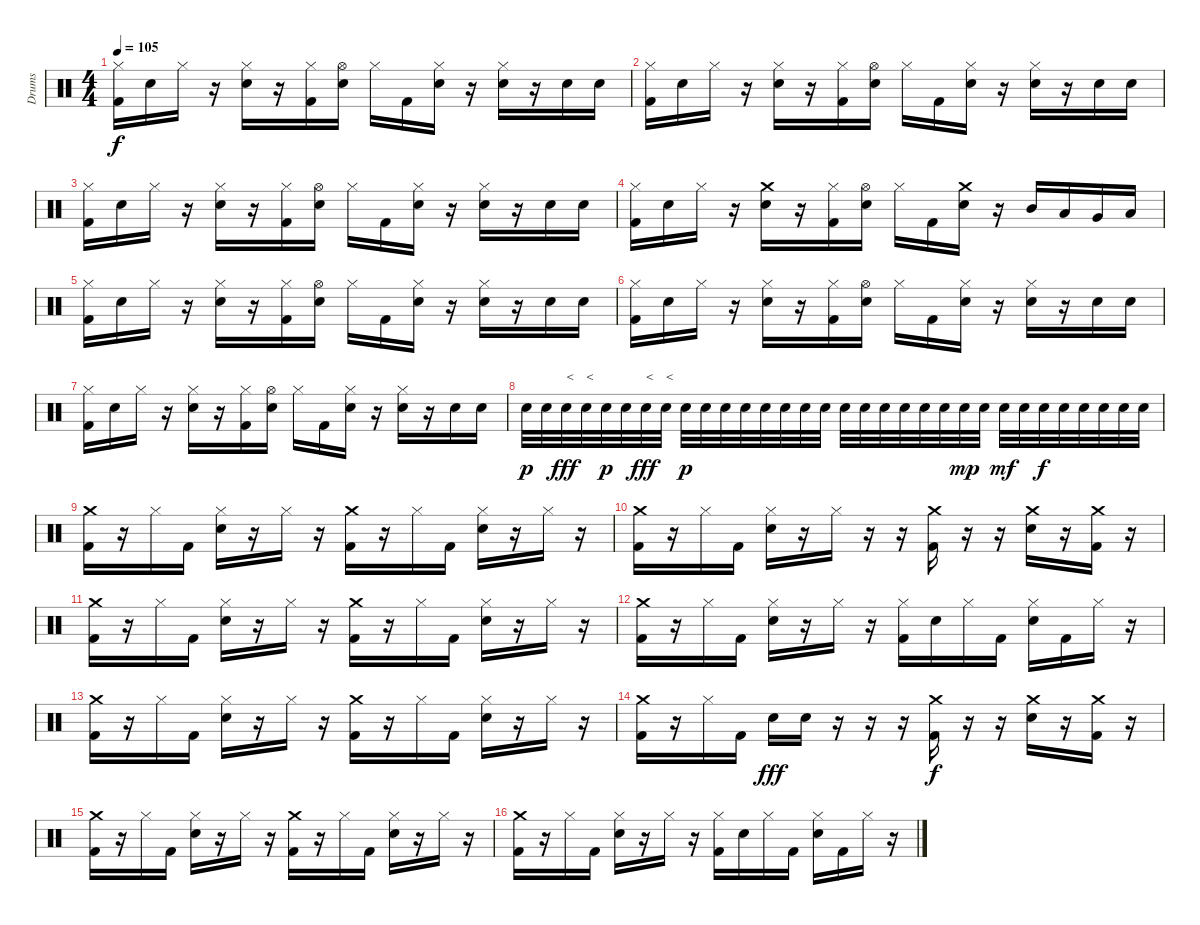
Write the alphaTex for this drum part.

\track ("Drums" "Drums") {instrument percussion}
\staff {score}
\articulation defaults
\ts (4 4)
\tempo 105
\clef neutral
\ks c
("Hi-Hat (closed)" "Kick (hit) 2").16{dy f} "Snare (hit) 2".16 "Hi-Hat (closed)".16 r.16 ("Hi-Hat (closed)" "Snare (hit) 2").16 r.16 ("Hi-Hat (closed)" "Kick (hit) 2").16 ("Hi-Hat (open)" "Snare (hit) 2").16 "Hi-Hat (closed)".16 "Kick (hit) 2".16 ("Hi-Hat (closed)" "Snare (hit) 2").16 r.16 ("Hi-Hat (closed)" "Snare (hit) 2").16 r.16 "Snare (hit) 2".16 "Snare (hit) 2".16 |
("Hi-Hat (closed)" "Kick (hit) 2").16 "Snare (hit) 2".16 "Hi-Hat (closed)".16 r.16 ("Hi-Hat (closed)" "Snare (hit) 2").16 r.16 ("Hi-Hat (closed)" "Kick (hit) 2").16 ("Hi-Hat (open)" "Snare (hit) 2").16 "Hi-Hat (closed)".16 "Kick (hit) 2".16 ("Hi-Hat (closed)" "Snare (hit) 2").16 r.16 ("Hi-Hat (closed)" "Snare (hit) 2").16 r.16 "Snare (hit) 2".16 "Snare (hit) 2".16 |
("Hi-Hat (closed)" "Kick (hit) 2").16 "Snare (hit) 2".16 "Hi-Hat (closed)".16 r.16 ("Hi-Hat (closed)" "Snare (hit) 2").16 r.16 ("Hi-Hat (closed)" "Kick (hit) 2").16 ("Hi-Hat (open)" "Snare (hit) 2").16 "Hi-Hat (closed)".16 "Kick (hit) 2".16 ("Hi-Hat (closed)" "Snare (hit) 2").16 r.16 ("Hi-Hat (closed)" "Snare (hit) 2").16 r.16 "Snare (hit) 2".16 "Snare (hit) 2".16 |
("Hi-Hat (closed)" "Kick (hit) 2").16 "Snare (hit) 2".16 "Hi-Hat (closed)".16 r.16 ("Crash medium (hit)" "Snare (hit) 2").16 r.16 ("Hi-Hat (closed)" "Kick (hit) 2").16 ("Hi-Hat (open)" "Snare (hit) 2").16 "Hi-Hat (closed)".16 "Kick (hit) 2".16 ("Crash medium (hit)" "Snare (hit) 2").16 r.16 "Mid Tom (hit)".16 "Low Tom (hit)".16 "Very Low Tom (hit)".16 "Low Floor Tom (hit)".16 |
("Hi-Hat (closed)" "Kick (hit) 2").16 "Snare (hit) 2".16 "Hi-Hat (closed)".16 r.16 ("Hi-Hat (closed)" "Snare (hit) 2").16 r.16 ("Hi-Hat (closed)" "Kick (hit) 2").16 ("Hi-Hat (open)" "Snare (hit) 2").16 "Hi-Hat (closed)".16 "Kick (hit) 2".16 ("Hi-Hat (closed)" "Snare (hit) 2").16 r.16 ("Hi-Hat (closed)" "Snare (hit) 2").16 r.16 "Snare (hit) 2".16 "Snare (hit) 2".16 |
("Hi-Hat (closed)" "Kick (hit) 2").16 "Snare (hit) 2".16 "Hi-Hat (closed)".16 r.16 ("Hi-Hat (closed)" "Snare (hit) 2").16 r.16 ("Hi-Hat (closed)" "Kick (hit) 2").16 ("Hi-Hat (open)" "Snare (hit) 2").16 "Hi-Hat (closed)".16 "Kick (hit) 2".16 ("Hi-Hat (closed)" "Snare (hit) 2").16 r.16 ("Hi-Hat (closed)" "Snare (hit) 2").16 r.16 "Snare (hit) 2".16 "Snare (hit) 2".16 |
("Hi-Hat (closed)" "Kick (hit) 2").16 "Snare (hit) 2".16 "Hi-Hat (closed)".16 r.16 ("Hi-Hat (closed)" "Snare (hit) 2").16 r.16 ("Hi-Hat (closed)" "Kick (hit) 2").16 ("Hi-Hat (open)" "Snare (hit) 2").16 "Hi-Hat (closed)".16 "Kick (hit) 2".16 ("Hi-Hat (closed)" "Snare (hit) 2").16 r.16 ("Hi-Hat (closed)" "Snare (hit) 2").16 r.16 "Snare (hit) 2".16 "Snare (hit) 2".16 |
"Snare (hit) 2".32{dy p} "Snare (hit) 2".32 "Snare (hit) 2".32{txt "<" dy fff} "Snare (hit) 2".32{txt "<"} "Snare (hit) 2".32{dy p} "Snare (hit) 2".32 "Snare (hit) 2".32{txt "<" dy fff} "Snare (hit) 2".32{txt "<"} "Snare (hit) 2".32{dy p} "Snare (hit) 2".32 "Snare (hit) 2".32 "Snare (hit) 2".32 "Snare (hit) 2".32 "Snare (hit) 2".32 "Snare (hit) 2".32 "Snare (hit) 2".32 "Snare (hit) 2".32 "Snare (hit) 2".32 "Snare (hit) 2".32 "Snare (hit) 2".32 "Snare (hit) 2".32 "Snare (hit) 2".32 "Snare (hit) 2".32{dy mp} "Snare (hit) 2".32 "Snare (hit) 2".32{dy mf} "Snare (hit) 2".32 "Snare (hit) 2".32{dy f} "Snare (hit) 2".32 "Snare (hit) 2".32 "Snare (hit) 2".32 "Snare (hit) 2".32 "Snare (hit) 2".32 |
("Crash medium (hit)" "Kick (hit) 2").16 r.16 "Hi-Hat (closed)".16 "Kick (hit) 2".16 ("Hi-Hat (closed)" "Snare (hit) 2").16 r.16 "Hi-Hat (closed)".16 r.16 ("Crash medium (hit)" "Kick (hit) 2").16 r.16 "Hi-Hat (closed)".16 "Kick (hit) 2".16 ("Hi-Hat (closed)" "Snare (hit) 2").16 r.16 "Hi-Hat (closed)".16 r.16 |
("Crash medium (hit)" "Kick (hit) 2").16 r.16 "Hi-Hat (closed)".16 "Kick (hit) 2".16 ("Hi-Hat (closed)" "Snare (hit) 2").16 r.16 "Hi-Hat (closed)".16 r.16 r.16 ("Crash medium (hit)" "Kick (hit) 2").16 r.16 r.16 ("Crash medium (hit)" "Snare (hit) 2").16 r.16 ("Crash medium (hit)" "Kick (hit) 2").16 r.16 |
("Crash medium (hit)" "Kick (hit) 2").16 r.16 "Hi-Hat (closed)".16 "Kick (hit) 2".16 ("Hi-Hat (closed)" "Snare (hit) 2").16 r.16 "Hi-Hat (closed)".16 r.16 ("Crash medium (hit)" "Kick (hit) 2").16 r.16 "Hi-Hat (closed)".16 "Kick (hit) 2".16 ("Hi-Hat (closed)" "Snare (hit) 2").16 r.16 "Hi-Hat (closed)".16 r.16 |
("Crash medium (hit)" "Kick (hit) 2").16 r.16 "Hi-Hat (closed)".16 "Kick (hit) 2".16 ("Hi-Hat (closed)" "Snare (hit) 2").16 r.16 "Hi-Hat (closed)".16 r.16 ("Hi-Hat (closed)" "Kick (hit) 2").16 "Snare (hit) 2".16 "Hi-Hat (closed)".16 "Kick (hit) 2".16 ("Hi-Hat (closed)" "Snare (hit) 2").16 "Kick (hit) 2".16 "Hi-Hat (closed)".16 r.16 |
("Crash medium (hit)" "Kick (hit) 2").16 r.16 "Hi-Hat (closed)".16 "Kick (hit) 2".16 ("Hi-Hat (closed)" "Snare (hit) 2").16 r.16 "Hi-Hat (closed)".16 r.16 ("Crash medium (hit)" "Kick (hit) 2").16 r.16 "Hi-Hat (closed)".16 "Kick (hit) 2".16 ("Hi-Hat (closed)" "Snare (hit) 2").16 r.16 "Hi-Hat (closed)".16 r.16 |
("Crash medium (hit)" "Kick (hit) 2").16 r.16 "Hi-Hat (closed)".16 "Kick (hit) 2".16 "Snare (hit) 2".16{dy fff} "Snare (hit) 2".16 r.16 r.16 r.16 ("Crash medium (hit)" "Kick (hit) 2").16{dy f} r.16 r.16 ("Crash medium (hit)" "Snare (hit) 2").16 r.16 ("Crash medium (hit)" "Kick (hit) 2").16 r.16 |
("Crash medium (hit)" "Kick (hit) 2").16 r.16 "Hi-Hat (closed)".16 "Kick (hit) 2".16 ("Hi-Hat (closed)" "Snare (hit) 2").16 r.16 "Hi-Hat (closed)".16 r.16 ("Crash medium (hit)" "Kick (hit) 2").16 r.16 "Hi-Hat (closed)".16 "Kick (hit) 2".16 ("Hi-Hat (closed)" "Snare (hit) 2").16 r.16 "Hi-Hat (closed)".16 r.16 |
("Crash medium (hit)" "Kick (hit) 2").16 r.16 "Hi-Hat (closed)".16 "Kick (hit) 2".16 ("Hi-Hat (closed)" "Snare (hit) 2").16 r.16 "Hi-Hat (closed)".16 r.16 ("Hi-Hat (closed)" "Kick (hit) 2").16 "Snare (hit) 2".16 "Hi-Hat (closed)".16 "Kick (hit) 2".16 ("Hi-Hat (closed)" "Snare (hit) 2").16 "Kick (hit) 2".16 "Hi-Hat (closed)".16 r.16
